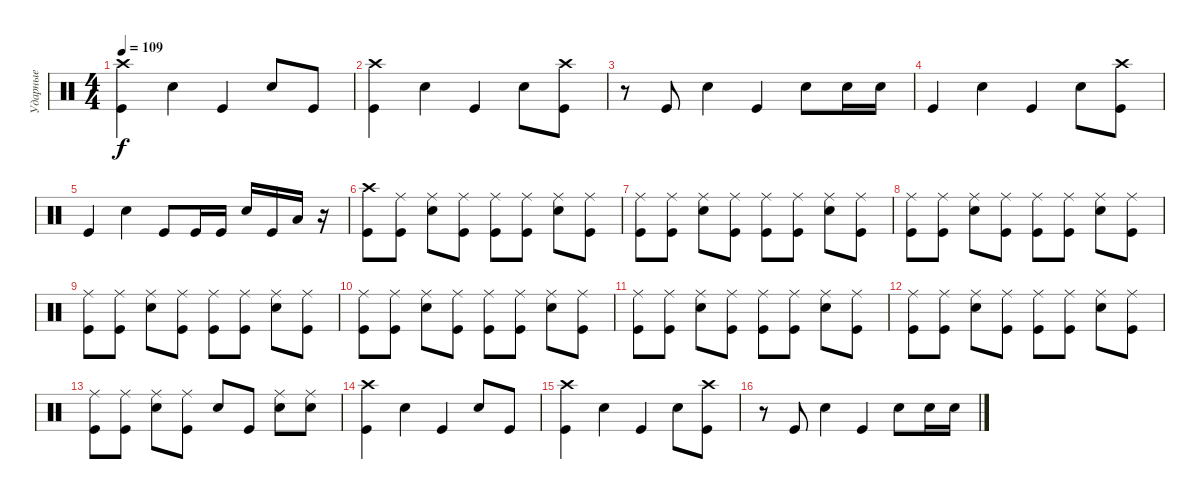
\track ("Ударные" "Ударные") {instrument percussion}
\staff {score}
\articulation defaults
\ts (4 4)
\tempo 109
\clef neutral
\ks c
("Kick (hit)" "Crash high (hit)").4{dy f} "Snare (hit) 2".4 "Kick (hit)".4 "Snare (hit) 2".8 "Kick (hit)".8 |
("Kick (hit)" "Crash high (hit)").4 "Snare (hit) 2".4 "Kick (hit)".4 "Snare (hit) 2".8 ("Kick (hit)" "Crash high (hit)").8 |
r.8 "Kick (hit)".8 "Snare (hit) 2".4 "Kick (hit)".4 "Snare (hit) 2".8 "Snare (hit) 2".16 "Snare (hit) 2".16 |
"Kick (hit)".4 "Snare (hit) 2".4 "Kick (hit)".4 "Snare (hit) 2".8 ("Kick (hit)" "Crash high (hit)").8 |
"Kick (hit)".4 "Snare (hit) 2".4 "Kick (hit)".8 "Kick (hit)".16 "Kick (hit)".16 "Snare (hit) 2".16 "Kick (hit)".16 "Low Floor Tom (hit)".16 r.16 |
("Kick (hit)" "Crash high (hit)").8 ("Kick (hit)" "Ride (middle)").8 ("Snare (hit) 2" "Ride (middle)").8 ("Kick (hit)" "Ride (middle)").8 ("Kick (hit)" "Ride (middle)").8 ("Kick (hit)" "Ride (middle)").8 ("Snare (hit) 2" "Ride (middle)").8 ("Kick (hit)" "Ride (middle)").8 |
("Kick (hit)" "Ride (middle)").8 ("Kick (hit)" "Ride (middle)").8 ("Snare (hit) 2" "Ride (middle)").8 ("Kick (hit)" "Ride (middle)").8 ("Kick (hit)" "Ride (middle)").8 ("Kick (hit)" "Ride (middle)").8 ("Snare (hit) 2" "Ride (middle)").8 ("Kick (hit)" "Ride (middle)").8 |
("Kick (hit)" "Ride (middle)").8 ("Kick (hit)" "Ride (middle)").8 ("Snare (hit) 2" "Ride (middle)").8 ("Kick (hit)" "Ride (middle)").8 ("Kick (hit)" "Ride (middle)").8 ("Kick (hit)" "Ride (middle)").8 ("Snare (hit) 2" "Ride (middle)").8 ("Kick (hit)" "Ride (middle)").8 |
("Kick (hit)" "Ride (middle)").8 ("Kick (hit)" "Ride (middle)").8 ("Snare (hit) 2" "Ride (middle)").8 ("Kick (hit)" "Ride (middle)").8 ("Kick (hit)" "Ride (middle)").8 ("Kick (hit)" "Ride (middle)").8 ("Snare (hit) 2" "Ride (middle)").8 ("Kick (hit)" "Ride (middle)").8 |
("Kick (hit)" "Ride (middle)").8 ("Kick (hit)" "Ride (middle)").8 ("Snare (hit) 2" "Ride (middle)").8 ("Kick (hit)" "Ride (middle)").8 ("Kick (hit)" "Ride (middle)").8 ("Kick (hit)" "Ride (middle)").8 ("Snare (hit) 2" "Ride (middle)").8 ("Kick (hit)" "Ride (middle)").8 |
("Kick (hit)" "Ride (middle)").8 ("Kick (hit)" "Ride (middle)").8 ("Snare (hit) 2" "Ride (middle)").8 ("Kick (hit)" "Ride (middle)").8 ("Kick (hit)" "Ride (middle)").8 ("Kick (hit)" "Ride (middle)").8 ("Snare (hit) 2" "Ride (middle)").8 ("Kick (hit)" "Ride (middle)").8 |
("Kick (hit)" "Ride (middle)").8 ("Kick (hit)" "Ride (middle)").8 ("Snare (hit) 2" "Ride (middle)").8 ("Kick (hit)" "Ride (middle)").8 ("Kick (hit)" "Ride (middle)").8 ("Kick (hit)" "Ride (middle)").8 ("Snare (hit) 2" "Ride (middle)").8 ("Kick (hit)" "Ride (middle)").8 |
("Kick (hit)" "Ride (middle)").8 ("Kick (hit)" "Ride (middle)").8 ("Snare (hit) 2" "Ride (middle)").8 ("Kick (hit)" "Ride (middle)").8 "Snare (hit) 2".8 "Kick (hit)".8 ("Snare (hit) 2" "Ride (middle)").8 ("Snare (hit) 2" "Ride (middle)").8 |
("Kick (hit)" "Crash high (hit)").4 "Snare (hit) 2".4 "Kick (hit)".4 "Snare (hit) 2".8 "Kick (hit)".8 |
("Kick (hit)" "Crash high (hit)").4 "Snare (hit) 2".4 "Kick (hit)".4 "Snare (hit) 2".8 ("Kick (hit)" "Crash high (hit)").8 |
r.8 "Kick (hit)".8 "Snare (hit) 2".4 "Kick (hit)".4 "Snare (hit) 2".8 "Snare (hit) 2".16 "Snare (hit) 2".16
